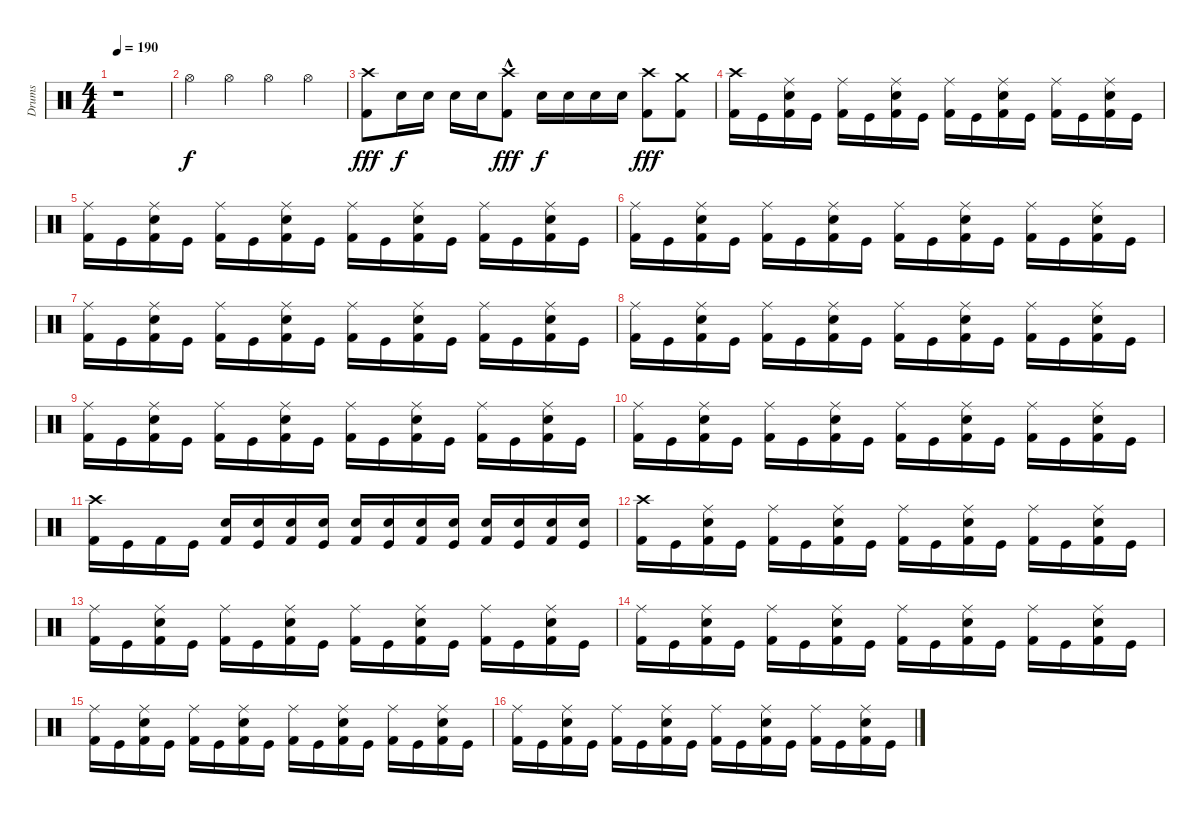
\track ("Drums" "Drums") {instrument percussion}
\staff {score}
\articulation defaults
\ts (4 4)
\tempo 190
\clef neutral
\ks c
r.1{dy f} |
"Hi-Hat (open)".4 "Hi-Hat (open)".4 "Hi-Hat (open)".4 "Hi-Hat (open)".4 |
("Crash high (hit)" "Kick (hit) 2").8{dy fff} "Electric Snare (hit)".16{dy f} "Electric Snare (hit)".16 "Electric Snare (hit)".16 "Electric Snare (hit)".16 ("Crash high (hit)"{hac} "Kick (hit) 2").8{dy fff} "Electric Snare (hit)".16{dy f} "Electric Snare (hit)".16 "Electric Snare (hit)".16 "Electric Snare (hit)".16 ("Crash high (hit)" "Kick (hit) 2").8{dy fff} ("Crash medium (hit)" "Kick (hit) 2").8 |
("Crash high (hit)" "Kick (hit) 2").16 "Kick (hit)".16 ("Ride (middle)" "Electric Snare (hit)" "Kick (hit) 2").16 "Kick (hit)".16 ("Ride (middle)" "Kick (hit) 2").16 "Kick (hit)".16 ("Ride (middle)" "Electric Snare (hit)" "Kick (hit) 2").16 "Kick (hit)".16 ("Ride (middle)" "Kick (hit) 2").16 "Kick (hit)".16 ("Ride (middle)" "Electric Snare (hit)" "Kick (hit) 2").16 "Kick (hit)".16 ("Ride (middle)" "Kick (hit) 2").16 "Kick (hit)".16 ("Ride (middle)" "Electric Snare (hit)" "Kick (hit) 2").16 "Kick (hit)".16 |
("Ride (middle)" "Kick (hit) 2").16 "Kick (hit)".16 ("Ride (middle)" "Electric Snare (hit)" "Kick (hit) 2").16 "Kick (hit)".16 ("Ride (middle)" "Kick (hit) 2").16 "Kick (hit)".16 ("Ride (middle)" "Electric Snare (hit)" "Kick (hit) 2").16 "Kick (hit)".16 ("Ride (middle)" "Kick (hit) 2").16 "Kick (hit)".16 ("Ride (middle)" "Electric Snare (hit)" "Kick (hit) 2").16 "Kick (hit)".16 ("Ride (middle)" "Kick (hit) 2").16 "Kick (hit)".16 ("Ride (middle)" "Electric Snare (hit)" "Kick (hit) 2").16 "Kick (hit)".16 |
("Ride (middle)" "Kick (hit) 2").16 "Kick (hit)".16 ("Ride (middle)" "Electric Snare (hit)" "Kick (hit) 2").16 "Kick (hit)".16 ("Ride (middle)" "Kick (hit) 2").16 "Kick (hit)".16 ("Ride (middle)" "Electric Snare (hit)" "Kick (hit) 2").16 "Kick (hit)".16 ("Ride (middle)" "Kick (hit) 2").16 "Kick (hit)".16 ("Ride (middle)" "Electric Snare (hit)" "Kick (hit) 2").16 "Kick (hit)".16 ("Ride (middle)" "Kick (hit) 2").16 "Kick (hit)".16 ("Ride (middle)" "Electric Snare (hit)" "Kick (hit) 2").16 "Kick (hit)".16 |
("Ride (middle)" "Kick (hit) 2").16 "Kick (hit)".16 ("Ride (middle)" "Electric Snare (hit)" "Kick (hit) 2").16 "Kick (hit)".16 ("Ride (middle)" "Kick (hit) 2").16 "Kick (hit)".16 ("Ride (middle)" "Electric Snare (hit)" "Kick (hit) 2").16 "Kick (hit)".16 ("Ride (middle)" "Kick (hit) 2").16 "Kick (hit)".16 ("Ride (middle)" "Electric Snare (hit)" "Kick (hit) 2").16 "Kick (hit)".16 ("Ride (middle)" "Kick (hit) 2").16 "Kick (hit)".16 ("Ride (middle)" "Electric Snare (hit)" "Kick (hit) 2").16 "Kick (hit)".16 |
("Ride (middle)" "Kick (hit) 2").16 "Kick (hit)".16 ("Ride (middle)" "Electric Snare (hit)" "Kick (hit) 2").16 "Kick (hit)".16 ("Ride (middle)" "Kick (hit) 2").16 "Kick (hit)".16 ("Ride (middle)" "Electric Snare (hit)" "Kick (hit) 2").16 "Kick (hit)".16 ("Ride (middle)" "Kick (hit) 2").16 "Kick (hit)".16 ("Ride (middle)" "Electric Snare (hit)" "Kick (hit) 2").16 "Kick (hit)".16 ("Ride (middle)" "Kick (hit) 2").16 "Kick (hit)".16 ("Ride (middle)" "Electric Snare (hit)" "Kick (hit) 2").16 "Kick (hit)".16 |
("Ride (middle)" "Kick (hit) 2").16 "Kick (hit)".16 ("Ride (middle)" "Electric Snare (hit)" "Kick (hit) 2").16 "Kick (hit)".16 ("Ride (middle)" "Kick (hit) 2").16 "Kick (hit)".16 ("Ride (middle)" "Electric Snare (hit)" "Kick (hit) 2").16 "Kick (hit)".16 ("Ride (middle)" "Kick (hit) 2").16 "Kick (hit)".16 ("Ride (middle)" "Electric Snare (hit)" "Kick (hit) 2").16 "Kick (hit)".16 ("Ride (middle)" "Kick (hit) 2").16 "Kick (hit)".16 ("Ride (middle)" "Electric Snare (hit)" "Kick (hit) 2").16 "Kick (hit)".16 |
("Ride (middle)" "Kick (hit) 2").16 "Kick (hit)".16 ("Ride (middle)" "Electric Snare (hit)" "Kick (hit) 2").16 "Kick (hit)".16 ("Ride (middle)" "Kick (hit) 2").16 "Kick (hit)".16 ("Ride (middle)" "Electric Snare (hit)" "Kick (hit) 2").16 "Kick (hit)".16 ("Ride (middle)" "Kick (hit) 2").16 "Kick (hit)".16 ("Ride (middle)" "Electric Snare (hit)" "Kick (hit) 2").16 "Kick (hit)".16 ("Ride (middle)" "Kick (hit) 2").16 "Kick (hit)".16 ("Ride (middle)" "Electric Snare (hit)" "Kick (hit) 2").16 "Kick (hit)".16 |
("Crash high (hit)" "Kick (hit) 2").16 "Kick (hit)".16 "Kick (hit) 2".16 "Kick (hit)".16 ("Electric Snare (hit)" "Kick (hit) 2").16 ("Electric Snare (hit)" "Kick (hit)").16 ("Electric Snare (hit)" "Kick (hit) 2").16 ("Electric Snare (hit)" "Kick (hit)").16 ("Electric Snare (hit)" "Kick (hit) 2").16 ("Electric Snare (hit)" "Kick (hit)").16 ("Electric Snare (hit)" "Kick (hit) 2").16 ("Electric Snare (hit)" "Kick (hit)").16 ("Electric Snare (hit)" "Kick (hit) 2").16 ("Electric Snare (hit)" "Kick (hit)").16 ("Electric Snare (hit)" "Kick (hit) 2").16 ("Electric Snare (hit)" "Kick (hit)").16 |
("Crash high (hit)" "Kick (hit) 2").16 "Kick (hit)".16 ("Ride (middle)" "Electric Snare (hit)" "Kick (hit) 2").16 "Kick (hit)".16 ("Ride (middle)" "Kick (hit) 2").16 "Kick (hit)".16 ("Ride (middle)" "Electric Snare (hit)" "Kick (hit) 2").16 "Kick (hit)".16 ("Ride (middle)" "Kick (hit) 2").16 "Kick (hit)".16 ("Ride (middle)" "Electric Snare (hit)" "Kick (hit) 2").16 "Kick (hit)".16 ("Ride (middle)" "Kick (hit) 2").16 "Kick (hit)".16 ("Ride (middle)" "Electric Snare (hit)" "Kick (hit) 2").16 "Kick (hit)".16 |
("Ride (middle)" "Kick (hit) 2").16 "Kick (hit)".16 ("Ride (middle)" "Electric Snare (hit)" "Kick (hit) 2").16 "Kick (hit)".16 ("Ride (middle)" "Kick (hit) 2").16 "Kick (hit)".16 ("Ride (middle)" "Electric Snare (hit)" "Kick (hit) 2").16 "Kick (hit)".16 ("Ride (middle)" "Kick (hit) 2").16 "Kick (hit)".16 ("Ride (middle)" "Electric Snare (hit)" "Kick (hit) 2").16 "Kick (hit)".16 ("Ride (middle)" "Kick (hit) 2").16 "Kick (hit)".16 ("Ride (middle)" "Electric Snare (hit)" "Kick (hit) 2").16 "Kick (hit)".16 |
("Ride (middle)" "Kick (hit) 2").16 "Kick (hit)".16 ("Ride (middle)" "Electric Snare (hit)" "Kick (hit) 2").16 "Kick (hit)".16 ("Ride (middle)" "Kick (hit) 2").16 "Kick (hit)".16 ("Ride (middle)" "Electric Snare (hit)" "Kick (hit) 2").16 "Kick (hit)".16 ("Ride (middle)" "Kick (hit) 2").16 "Kick (hit)".16 ("Ride (middle)" "Electric Snare (hit)" "Kick (hit) 2").16 "Kick (hit)".16 ("Ride (middle)" "Kick (hit) 2").16 "Kick (hit)".16 ("Ride (middle)" "Electric Snare (hit)" "Kick (hit) 2").16 "Kick (hit)".16 |
("Ride (middle)" "Kick (hit) 2").16 "Kick (hit)".16 ("Ride (middle)" "Electric Snare (hit)" "Kick (hit) 2").16 "Kick (hit)".16 ("Ride (middle)" "Kick (hit) 2").16 "Kick (hit)".16 ("Ride (middle)" "Electric Snare (hit)" "Kick (hit) 2").16 "Kick (hit)".16 ("Ride (middle)" "Kick (hit) 2").16 "Kick (hit)".16 ("Ride (middle)" "Electric Snare (hit)" "Kick (hit) 2").16 "Kick (hit)".16 ("Ride (middle)" "Kick (hit) 2").16 "Kick (hit)".16 ("Ride (middle)" "Electric Snare (hit)" "Kick (hit) 2").16 "Kick (hit)".16 |
("Ride (middle)" "Kick (hit) 2").16 "Kick (hit)".16 ("Ride (middle)" "Electric Snare (hit)" "Kick (hit) 2").16 "Kick (hit)".16 ("Ride (middle)" "Kick (hit) 2").16 "Kick (hit)".16 ("Ride (middle)" "Electric Snare (hit)" "Kick (hit) 2").16 "Kick (hit)".16 ("Ride (middle)" "Kick (hit) 2").16 "Kick (hit)".16 ("Ride (middle)" "Electric Snare (hit)" "Kick (hit) 2").16 "Kick (hit)".16 ("Ride (middle)" "Kick (hit) 2").16 "Kick (hit)".16 ("Ride (middle)" "Electric Snare (hit)" "Kick (hit) 2").16 "Kick (hit)".16
